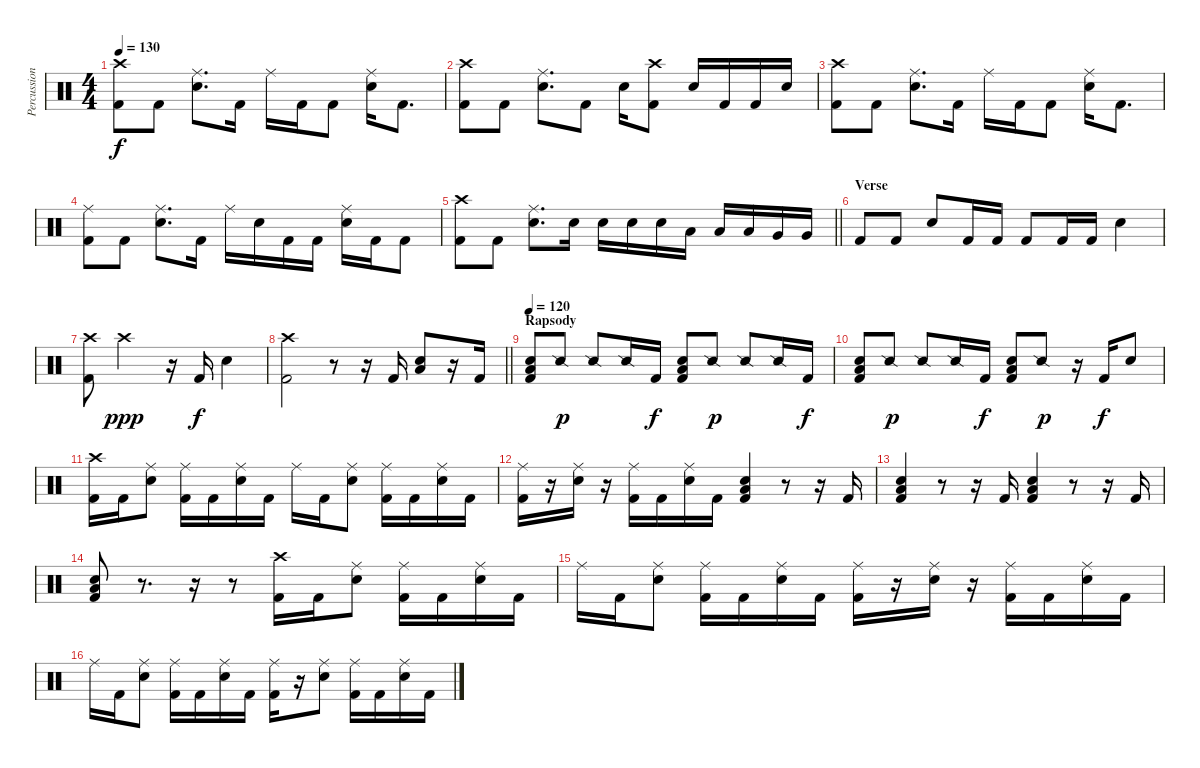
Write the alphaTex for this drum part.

\track ("Percussion" "Percussion") {instrument percussion}
\staff {score}
\articulation defaults
\ts (4 4)
\tempo 130
\clef neutral
\ks c
("Kick (hit) 2" "Crash high (hit)").8{dy f} "Kick (hit) 2".8 ("Snare (hit) 2" "Ride (middle)").8{d} "Kick (hit) 2".16 "Ride (middle)".16 "Kick (hit) 2".16 "Kick (hit) 2".8 ("Snare (hit) 2" "Ride (middle)").16 "Kick (hit) 2".8{d} |
("Kick (hit) 2" "Crash high (hit)").8 "Kick (hit) 2".8 ("Snare (hit) 2" "Ride (middle)").8{d} "Kick (hit) 2".8 "Snare (hit) 2".16 ("Kick (hit) 2" "Crash high (hit)").8 "Snare (hit) 2".16 "Kick (hit) 2".16 "Kick (hit) 2".16 "Snare (hit) 2".16 |
("Kick (hit) 2" "Crash high (hit)").8 "Kick (hit) 2".8 ("Snare (hit) 2" "Ride (middle)").8{d} "Kick (hit) 2".16 "Ride (middle)".16 "Kick (hit) 2".16 "Kick (hit) 2".8 ("Snare (hit) 2" "Ride (middle)").16 "Kick (hit) 2".8{d} |
("Kick (hit) 2" "Ride (middle)").8 "Kick (hit) 2".8 ("Snare (hit) 2" "Ride (middle)").8{d} "Kick (hit) 2".16 "Ride (middle)".16 "Snare (hit) 2".16 "Kick (hit) 2".16 "Kick (hit) 2".16 ("Snare (hit) 2" "Ride (middle)").16 "Kick (hit) 2".16 "Kick (hit) 2".8 |
\barLineRight lightlight
("Kick (hit) 2" "Crash high (hit)").8 "Kick (hit) 2".8 ("Snare (hit) 2" "Ride (middle)").8{d} "Snare (hit) 2".16 "Snare (hit) 2".16 "Snare (hit) 2".16 "Snare (hit) 2".16 "Low Tom (hit)".16 "Low Tom (hit)".16 "Low Tom (hit)".16 "Very Low Tom (hit)".16 "Very Low Tom (hit)".16 |
\section ("" "Verse")
"Kick (hit) 2".8 "Kick (hit) 2".8 "Snare (hit) 2".8 "Kick (hit) 2".16 "Kick (hit) 2".16 "Kick (hit) 2".8 "Kick (hit) 2".16 "Kick (hit) 2".16 "Snare (hit) 2".4 |
("Kick (hit) 2" "Crash high (hit)").8 "Crash high (hit)".2{dy ppp} r.16 "Kick (hit) 2".16{dy f} "Snare (hit) 2".4 |
\barLineRight lightlight
("Kick (hit) 2" "Crash high (hit)").2 r.8 r.16 "Kick (hit) 2".16 ("Snare (hit) 2" "Low Floor Tom (hit)").8 r.16 "Kick (hit) 2".16 |
\section ("" "Rapsody")
\tempo 120
("Snare (hit) 2" "Kick (hit) 2" "Low Floor Tom (hit)").8 "Snare (side stick) 2".8{dy p} "Snare (side stick) 2".8 "Snare (side stick) 2".16 "Kick (hit) 2".16{dy f} ("Snare (hit) 2" "Kick (hit) 2" "Low Floor Tom (hit)").8 "Snare (side stick) 2".8{dy p} "Snare (side stick) 2".8 "Snare (side stick) 2".16 "Kick (hit) 2".16{dy f} |
("Snare (hit) 2" "Kick (hit) 2" "Low Floor Tom (hit)").8 "Snare (side stick) 2".8{dy p} "Snare (side stick) 2".8 "Snare (side stick) 2".16 "Kick (hit) 2".16{dy f} ("Snare (hit) 2" "Kick (hit) 2" "Low Floor Tom (hit)").8 "Snare (side stick) 2".8{dy p} r.16 "Kick (hit) 2".16{dy f} "Snare (hit) 2".8 |
("Kick (hit) 2" "Crash high (hit)").16 "Kick (hit) 2".16 ("Snare (hit) 2" "Ride (middle)").8 ("Kick (hit) 2" "Ride (middle)").16 "Kick (hit) 2".16 ("Snare (hit) 2" "Ride (middle)").16 "Kick (hit) 2".16 "Ride (middle)".16 "Kick (hit) 2".16 ("Snare (hit) 2" "Ride (middle)").8 ("Kick (hit) 2" "Ride (middle)").16 "Kick (hit) 2".16 ("Snare (hit) 2" "Ride (middle)").16 "Kick (hit) 2".16 |
("Kick (hit) 2" "Ride (middle)").16 r.16 ("Snare (hit) 2" "Ride (middle)").16 r.16 ("Kick (hit) 2" "Ride (middle)").16 "Kick (hit) 2".16 ("Snare (hit) 2" "Ride (middle)").16 "Kick (hit) 2".16 ("Snare (hit) 2" "Low Floor Tom (hit)" "Kick (hit) 2").4 r.8 r.16 "Kick (hit) 2".16 |
("Snare (hit) 2" "Low Floor Tom (hit)" "Kick (hit) 2").4 r.8 r.16 "Kick (hit) 2".16 ("Snare (hit) 2" "Low Floor Tom (hit)" "Kick (hit) 2").4 r.8 r.16 "Kick (hit) 2".16 |
("Snare (hit) 2" "Low Floor Tom (hit)" "Kick (hit) 2").8 r.8{d} r.16 r.8 ("Kick (hit) 2" "Crash high (hit)").16 "Kick (hit) 2".16 ("Snare (hit) 2" "Ride (middle)").8 ("Kick (hit) 2" "Ride (middle)").16 "Kick (hit) 2".16 ("Snare (hit) 2" "Ride (middle)").16 "Kick (hit) 2".16 |
"Ride (middle)".16 "Kick (hit) 2".16 ("Snare (hit) 2" "Ride (middle)").8 ("Kick (hit) 2" "Ride (middle)").16 "Kick (hit) 2".16 ("Snare (hit) 2" "Ride (middle)").16 "Kick (hit) 2".16 ("Kick (hit) 2" "Ride (middle)").16 r.16 ("Snare (hit) 2" "Ride (middle)").16 r.16 ("Kick (hit) 2" "Ride (middle)").16 "Kick (hit) 2".16 ("Snare (hit) 2" "Ride (middle)").16 "Kick (hit) 2".16 |
"Ride (middle)".16 "Kick (hit) 2".16 ("Snare (hit) 2" "Ride (middle)").8 ("Kick (hit) 2" "Ride (middle)").16 "Kick (hit) 2".16 ("Snare (hit) 2" "Ride (middle)").16 "Kick (hit) 2".16 ("Ride (middle)" "Kick (hit) 2").16 r.16 ("Snare (hit) 2" "Ride (middle)").8 ("Kick (hit) 2" "Ride (middle)").16 "Kick (hit) 2".16 ("Snare (hit) 2" "Ride (middle)").16 "Kick (hit) 2".16
